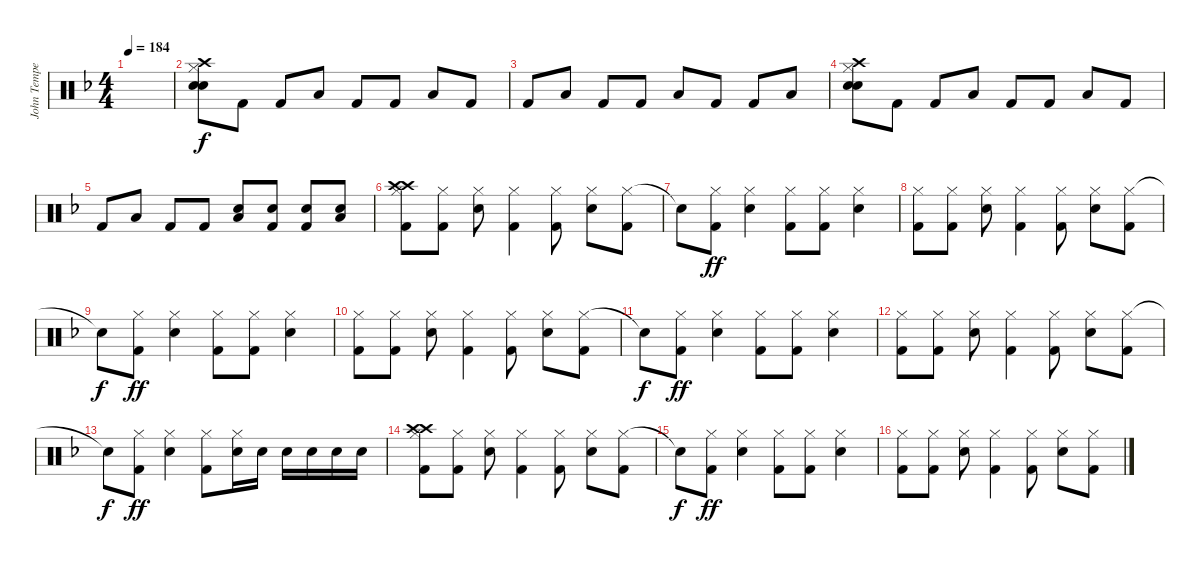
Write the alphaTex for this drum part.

\track ("John Tempesta " "John Tempe") {instrument percussion}
\staff {score}
\articulation defaults
\ts (4 4)
\tempo 184
\clef neutral
\ks f
|
("Crash high (hit)" "Electric Snare (hit)" "Electric Snare (hit)" "Hi-Hat (closed)").8 "Kick (hit) 2".8 "Kick (hit) 2".8 "Low Floor Tom (hit)".8 "Kick (hit) 2".8 "Kick (hit) 2".8 "Low Floor Tom (hit)".8 "Kick (hit) 2".8 |
"Kick (hit) 2".8 "Low Floor Tom (hit)".8 "Kick (hit) 2".8 "Kick (hit) 2".8 "Low Floor Tom (hit)".8 "Kick (hit) 2".8 "Kick (hit) 2".8 "Low Floor Tom (hit)".8 |
("Crash high (hit)" "Electric Snare (hit)" "Electric Snare (hit)" "Hi-Hat (closed)").8 "Kick (hit) 2".8 "Kick (hit) 2".8 "Low Floor Tom (hit)".8 "Kick (hit) 2".8 "Kick (hit) 2".8 "Low Floor Tom (hit)".8 "Kick (hit) 2".8 |
"Kick (hit) 2".8 "Low Floor Tom (hit)".8 "Kick (hit) 2".8 "Kick (hit) 2".8 ("Electric Snare (hit)" "Low Floor Tom (hit)").8 ("Electric Snare (hit)" "Kick (hit) 2").8 ("Electric Snare (hit)" "Kick (hit) 2").8 ("Electric Snare (hit)" "Low Floor Tom (hit)").8 |
("Hi-Hat (closed)" "Kick (hit) 2" "Crash high (hit)" "Crash high (hit)").8 ("Hi-Hat (closed)" "Kick (hit) 2").8 ("Hi-Hat (closed)" "Electric Snare (hit)").8 ("Hi-Hat (closed)" "Kick (hit) 2").4 ("Hi-Hat (closed)" "Kick (hit) 2").8 ("Hi-Hat (closed)" "Electric Snare (hit)").8 ("Hi-Hat (closed)" "Kick (hit) 2").8 |
"Snare (hit)"{t}.8{dy f} ("Hi-Hat (closed)" "Kick (hit) 2").8{dy ff} ("Hi-Hat (closed)" "Electric Snare (hit)").4 ("Hi-Hat (closed)" "Kick (hit) 2").8 ("Hi-Hat (closed)" "Kick (hit) 2").8 ("Hi-Hat (closed)" "Electric Snare (hit)").4 |
("Hi-Hat (closed)" "Kick (hit) 2").8 ("Hi-Hat (closed)" "Kick (hit) 2").8 ("Hi-Hat (closed)" "Electric Snare (hit)").8 ("Hi-Hat (closed)" "Kick (hit) 2").4 ("Hi-Hat (closed)" "Kick (hit) 2").8 ("Hi-Hat (closed)" "Electric Snare (hit)").8 ("Hi-Hat (closed)" "Kick (hit) 2").8 |
"Snare (hit)"{t}.8{dy f} ("Hi-Hat (closed)" "Kick (hit) 2").8{dy ff} ("Hi-Hat (closed)" "Electric Snare (hit)").4 ("Hi-Hat (closed)" "Kick (hit) 2").8 ("Hi-Hat (closed)" "Kick (hit) 2").8 ("Hi-Hat (closed)" "Electric Snare (hit)").4 |
("Hi-Hat (closed)" "Kick (hit) 2").8 ("Hi-Hat (closed)" "Kick (hit) 2").8 ("Hi-Hat (closed)" "Electric Snare (hit)").8 ("Hi-Hat (closed)" "Kick (hit) 2").4 ("Hi-Hat (closed)" "Kick (hit) 2").8 ("Hi-Hat (closed)" "Electric Snare (hit)").8 ("Hi-Hat (closed)" "Kick (hit) 2").8 |
"Snare (hit)"{t}.8{dy f} ("Hi-Hat (closed)" "Kick (hit) 2").8{dy ff} ("Hi-Hat (closed)" "Electric Snare (hit)").4 ("Hi-Hat (closed)" "Kick (hit) 2").8 ("Hi-Hat (closed)" "Kick (hit) 2").8 ("Hi-Hat (closed)" "Electric Snare (hit)").4 |
("Hi-Hat (closed)" "Kick (hit) 2").8 ("Hi-Hat (closed)" "Kick (hit) 2").8 ("Hi-Hat (closed)" "Electric Snare (hit)").8 ("Hi-Hat (closed)" "Kick (hit) 2").4 ("Hi-Hat (closed)" "Kick (hit) 2").8 ("Hi-Hat (closed)" "Electric Snare (hit)").8 ("Hi-Hat (closed)" "Kick (hit) 2").8 |
"Snare (hit)"{t}.8{dy f} ("Hi-Hat (closed)" "Kick (hit) 2").8{dy ff} ("Hi-Hat (closed)" "Electric Snare (hit)").4 ("Hi-Hat (closed)" "Kick (hit) 2").8 ("Hi-Hat (closed)" "Electric Snare (hit)").16 "Electric Snare (hit)".16 "Electric Snare (hit)".16 "Electric Snare (hit)".16 "Electric Snare (hit)".16 "Electric Snare (hit)".16 |
("Hi-Hat (closed)" "Kick (hit) 2" "Crash high (hit)" "Crash high (hit)").8 ("Hi-Hat (closed)" "Kick (hit) 2").8 ("Hi-Hat (closed)" "Electric Snare (hit)").8 ("Hi-Hat (closed)" "Kick (hit) 2").4 ("Hi-Hat (closed)" "Kick (hit) 2").8 ("Hi-Hat (closed)" "Electric Snare (hit)").8 ("Hi-Hat (closed)" "Kick (hit) 2").8 |
"Snare (hit)"{t}.8{dy f} ("Hi-Hat (closed)" "Kick (hit) 2").8{dy ff} ("Hi-Hat (closed)" "Electric Snare (hit)").4 ("Hi-Hat (closed)" "Kick (hit) 2").8 ("Hi-Hat (closed)" "Kick (hit) 2").8 ("Hi-Hat (closed)" "Electric Snare (hit)").4 |
("Hi-Hat (closed)" "Kick (hit) 2").8 ("Hi-Hat (closed)" "Kick (hit) 2").8 ("Hi-Hat (closed)" "Electric Snare (hit)").8 ("Hi-Hat (closed)" "Kick (hit) 2").4 ("Hi-Hat (closed)" "Kick (hit) 2").8 ("Hi-Hat (closed)" "Electric Snare (hit)").8 ("Hi-Hat (closed)" "Kick (hit) 2").8
